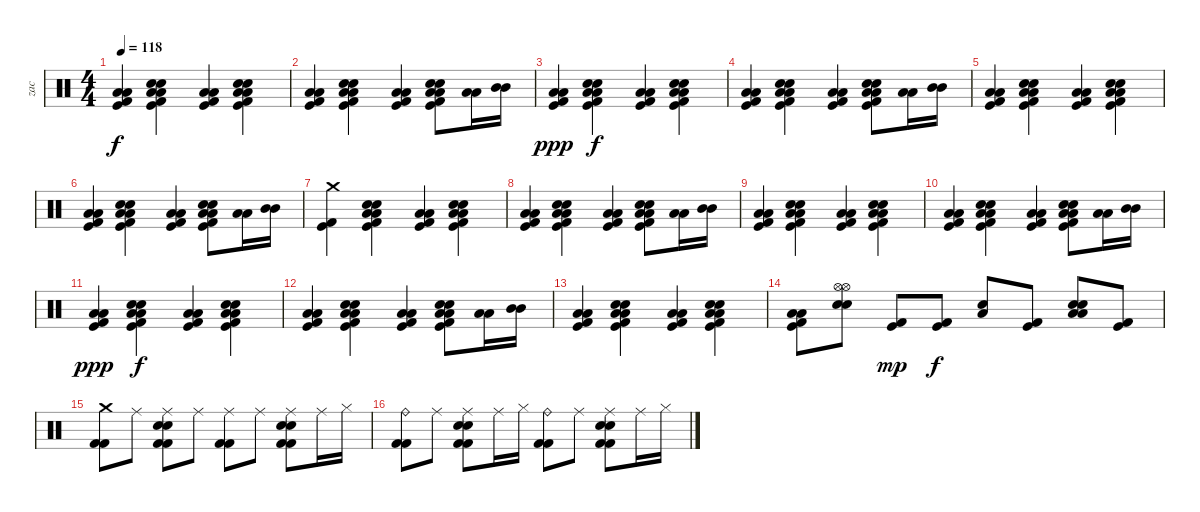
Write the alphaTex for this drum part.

\track ("zac" "zac") {instrument percussion}
\staff {score}
\articulation defaults
\ts (4 4)
\tempo 118
\clef neutral
\ks c
("Low Tom (hit)" "Low Tom (hit)" "Kick (hit)" "Kick (hit) 2").4{dy f} ("Low Tom (hit)" "Low Tom (hit)" "Electric Snare (hit)" "Electric Snare (hit)" "Kick (hit)" "Kick (hit) 2").4 ("Low Tom (hit)" "Low Tom (hit)" "Kick (hit)" "Kick (hit) 2").4 ("Low Tom (hit)" "Low Tom (hit)" "Electric Snare (hit)" "Electric Snare (hit)" "Kick (hit) 2" "Kick (hit)").4 |
("Low Tom (hit)" "Low Tom (hit)" "Kick (hit)" "Kick (hit) 2").4 ("Low Tom (hit)" "Low Tom (hit)" "Electric Snare (hit)" "Electric Snare (hit)" "Kick (hit)" "Kick (hit) 2").4 ("Low Tom (hit)" "Low Tom (hit)" "Kick (hit)" "Kick (hit) 2").4 ("Low Tom (hit)" "Low Tom (hit)" "Electric Snare (hit)" "Electric Snare (hit)" "Kick (hit) 2" "Kick (hit)").8 ("Low Tom (hit)" "Low Tom (hit)").16 ("Mid Tom (hit)" "Mid Tom (hit)").16 |
("Low Tom (hit)" "Low Tom (hit)" "Kick (hit)" "Kick (hit) 2").4{dy ppp} ("Low Tom (hit)" "Low Tom (hit)" "Electric Snare (hit)" "Electric Snare (hit)" "Kick (hit)" "Kick (hit) 2").4{dy f} ("Low Tom (hit)" "Low Tom (hit)" "Kick (hit)" "Kick (hit) 2").4 ("Low Tom (hit)" "Low Tom (hit)" "Electric Snare (hit)" "Electric Snare (hit)" "Kick (hit) 2" "Kick (hit)").4 |
("Low Tom (hit)" "Low Tom (hit)" "Kick (hit)" "Kick (hit) 2").4 ("Low Tom (hit)" "Low Tom (hit)" "Electric Snare (hit)" "Electric Snare (hit)" "Kick (hit)" "Kick (hit) 2").4 ("Low Tom (hit)" "Low Tom (hit)" "Kick (hit)" "Kick (hit) 2").4 ("Low Tom (hit)" "Low Tom (hit)" "Electric Snare (hit)" "Electric Snare (hit)" "Kick (hit) 2" "Kick (hit)").8 ("Low Tom (hit)" "Low Tom (hit)").16 ("Mid Tom (hit)" "Mid Tom (hit)").16 |
("Low Tom (hit)" "Low Tom (hit)" "Kick (hit)" "Kick (hit) 2").4 ("Low Tom (hit)" "Low Tom (hit)" "Electric Snare (hit)" "Electric Snare (hit)" "Kick (hit)" "Kick (hit) 2").4 ("Low Tom (hit)" "Low Tom (hit)" "Kick (hit)" "Kick (hit) 2").4 ("Low Tom (hit)" "Low Tom (hit)" "Electric Snare (hit)" "Electric Snare (hit)" "Kick (hit) 2" "Kick (hit)").4 |
("Low Tom (hit)" "Low Tom (hit)" "Kick (hit)" "Kick (hit) 2").4 ("Low Tom (hit)" "Low Tom (hit)" "Electric Snare (hit)" "Electric Snare (hit)" "Kick (hit)" "Kick (hit) 2").4 ("Low Tom (hit)" "Low Tom (hit)" "Kick (hit)" "Kick (hit) 2").4 ("Low Tom (hit)" "Low Tom (hit)" "Electric Snare (hit)" "Electric Snare (hit)" "Kick (hit) 2" "Kick (hit)").8 ("Low Tom (hit)" "Low Tom (hit)").16 ("Mid Tom (hit)" "Mid Tom (hit)").16 |
("Crash medium (hit)" "Kick (hit)" "Kick (hit) 2").4 ("Low Tom (hit)" "Low Tom (hit)" "Electric Snare (hit)" "Electric Snare (hit)" "Kick (hit)" "Kick (hit) 2").4 ("Low Tom (hit)" "Low Tom (hit)" "Kick (hit)" "Kick (hit) 2").4 ("Low Tom (hit)" "Low Tom (hit)" "Electric Snare (hit)" "Electric Snare (hit)" "Kick (hit) 2" "Kick (hit)").4 |
("Low Tom (hit)" "Low Tom (hit)" "Kick (hit)" "Kick (hit) 2").4 ("Low Tom (hit)" "Low Tom (hit)" "Electric Snare (hit)" "Electric Snare (hit)" "Kick (hit)" "Kick (hit) 2").4 ("Low Tom (hit)" "Low Tom (hit)" "Kick (hit)" "Kick (hit) 2").4 ("Low Tom (hit)" "Low Tom (hit)" "Electric Snare (hit)" "Electric Snare (hit)" "Kick (hit) 2" "Kick (hit)").8 ("Low Tom (hit)" "Low Tom (hit)").16 ("Mid Tom (hit)" "Mid Tom (hit)").16 |
("Low Tom (hit)" "Low Tom (hit)" "Kick (hit)" "Kick (hit) 2").4 ("Low Tom (hit)" "Low Tom (hit)" "Electric Snare (hit)" "Electric Snare (hit)" "Kick (hit)" "Kick (hit) 2").4 ("Low Tom (hit)" "Low Tom (hit)" "Kick (hit)" "Kick (hit) 2").4 ("Low Tom (hit)" "Low Tom (hit)" "Electric Snare (hit)" "Electric Snare (hit)" "Kick (hit) 2" "Kick (hit)").4 |
("Low Tom (hit)" "Low Tom (hit)" "Kick (hit)" "Kick (hit) 2").4 ("Low Tom (hit)" "Low Tom (hit)" "Electric Snare (hit)" "Electric Snare (hit)" "Kick (hit)" "Kick (hit) 2").4 ("Low Tom (hit)" "Low Tom (hit)" "Kick (hit)" "Kick (hit) 2").4 ("Low Tom (hit)" "Low Tom (hit)" "Electric Snare (hit)" "Electric Snare (hit)" "Kick (hit) 2" "Kick (hit)").8 ("Low Tom (hit)" "Low Tom (hit)").16 ("Mid Tom (hit)" "Mid Tom (hit)").16 |
("Low Tom (hit)" "Low Tom (hit)" "Kick (hit)" "Kick (hit) 2").4{dy ppp} ("Low Tom (hit)" "Low Tom (hit)" "Electric Snare (hit)" "Electric Snare (hit)" "Kick (hit)" "Kick (hit) 2").4{dy f} ("Low Tom (hit)" "Low Tom (hit)" "Kick (hit)" "Kick (hit) 2").4 ("Low Tom (hit)" "Low Tom (hit)" "Electric Snare (hit)" "Electric Snare (hit)" "Kick (hit) 2" "Kick (hit)").4 |
("Low Tom (hit)" "Low Tom (hit)" "Kick (hit)" "Kick (hit) 2").4 ("Low Tom (hit)" "Low Tom (hit)" "Electric Snare (hit)" "Electric Snare (hit)" "Kick (hit)" "Kick (hit) 2").4 ("Low Tom (hit)" "Low Tom (hit)" "Kick (hit)" "Kick (hit) 2").4 ("Low Tom (hit)" "Low Tom (hit)" "Electric Snare (hit)" "Electric Snare (hit)" "Kick (hit) 2" "Kick (hit)").8 ("Low Tom (hit)" "Low Tom (hit)").16 ("Mid Tom (hit)" "Mid Tom (hit)").16 |
("Low Tom (hit)" "Low Tom (hit)" "Kick (hit)" "Kick (hit) 2").4 ("Low Tom (hit)" "Low Tom (hit)" "Electric Snare (hit)" "Electric Snare (hit)" "Kick (hit)" "Kick (hit) 2").4 ("Low Tom (hit)" "Low Tom (hit)" "Kick (hit)" "Kick (hit) 2").4 ("Low Tom (hit)" "Low Tom (hit)" "Electric Snare (hit)" "Electric Snare (hit)" "Kick (hit) 2" "Kick (hit)").4 |
("Low Tom (hit)" "Low Tom (hit)" "Kick (hit)" "Kick (hit) 2").8 ("Hi-Hat (open)" "Hi-Hat (open)" "Electric Snare (hit)" "Electric Snare (hit)").8 ("Kick (hit)" "Kick (hit) 2").8{dy mp} ("Kick (hit)" "Kick (hit) 2").8{dy f} ("Low Tom (hit)" "Electric Snare (hit)").8 ("Kick (hit)" "Kick (hit) 2").8 ("Low Tom (hit)" "Low Tom (hit)" "Electric Snare (hit)" "Electric Snare (hit)").8 ("Kick (hit)" "Kick (hit) 2").8 |
("Crash medium (hit)" "Kick (hit) 2" "Kick (hit) 2").8 "Ride (middle)".8 ("Electric Snare (hit)" "Ride (middle)" "Electric Snare (hit)" "Kick (hit) 2" "Kick (hit) 2").8 "Ride (middle)".8 ("Ride (middle)" "Kick (hit) 2" "Kick (hit) 2").8 "Ride (middle)".8 ("Electric Snare (hit)" "Ride (middle)" "Electric Snare (hit)" "Kick (hit) 2" "Kick (hit) 2").8 "Ride (middle)".16 "Hi-Hat (closed)".16 |
("Ride (bell)" "Kick (hit) 2" "Kick (hit) 2").8 "Ride (middle)".8 ("Electric Snare (hit)" "Ride (middle)" "Electric Snare (hit)" "Kick (hit) 2" "Kick (hit) 2").8 "Ride (middle)".16 "Hi-Hat (closed)".16 ("Ride (bell)" "Kick (hit) 2" "Kick (hit) 2").8 "Ride (middle)".8 ("Electric Snare (hit)" "Ride (middle)" "Electric Snare (hit)" "Kick (hit) 2" "Kick (hit) 2").8 "Ride (middle)".16 "Hi-Hat (closed)".16
